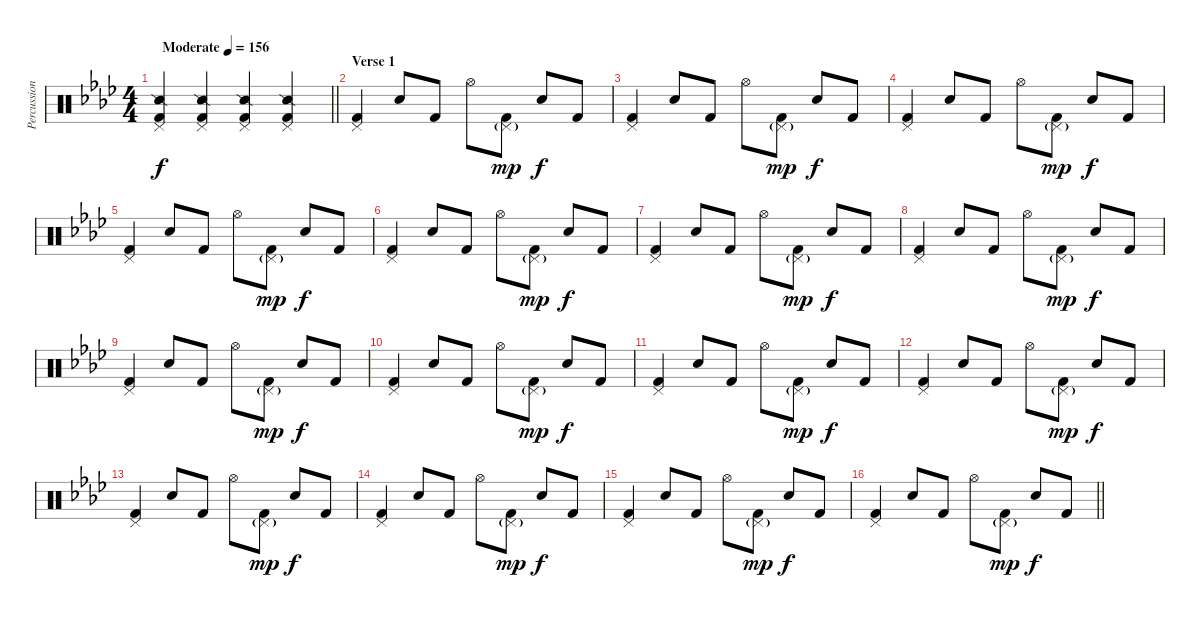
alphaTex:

\track ("Percussion" "Percussion") {instrument percussion}
\staff {score}
\articulation defaults
\ts (4 4)
\tempo (156 "Moderate")
\clef neutral
\barLineRight lightlight
\ks fminor
("Snare (side stick) 2" "Pedal Hi-Hat (hit)" "Kick (hit) 2").4{dy f} ("Snare (side stick) 2" "Pedal Hi-Hat (hit)" "Kick (hit) 2").4 ("Snare (side stick) 2" "Pedal Hi-Hat (hit)" "Kick (hit) 2").4 ("Snare (side stick) 2" "Pedal Hi-Hat (hit)" "Kick (hit) 2").4 |
\section ("" "Verse 1")
("Pedal Hi-Hat (hit)" "Kick (hit) 2").4 "Electric Snare (hit)".8 "Kick (hit) 2".8 "Hi-Hat (open)".8 ("Pedal Hi-Hat (hit)"{g} "Kick (hit) 2").8{dy mp} "Electric Snare (hit)".8{dy f} "Kick (hit) 2".8 |
("Pedal Hi-Hat (hit)" "Kick (hit) 2").4 "Electric Snare (hit)".8 "Kick (hit) 2".8 "Hi-Hat (open)".8 ("Pedal Hi-Hat (hit)"{g} "Kick (hit) 2").8{dy mp} "Electric Snare (hit)".8{dy f} "Kick (hit) 2".8 |
("Pedal Hi-Hat (hit)" "Kick (hit) 2").4 "Electric Snare (hit)".8 "Kick (hit) 2".8 "Hi-Hat (open)".8 ("Pedal Hi-Hat (hit)"{g} "Kick (hit) 2").8{dy mp} "Electric Snare (hit)".8{dy f} "Kick (hit) 2".8 |
("Pedal Hi-Hat (hit)" "Kick (hit) 2").4 "Electric Snare (hit)".8 "Kick (hit) 2".8 "Hi-Hat (open)".8 ("Pedal Hi-Hat (hit)"{g} "Kick (hit) 2").8{dy mp} "Electric Snare (hit)".8{dy f} "Kick (hit) 2".8 |
("Pedal Hi-Hat (hit)" "Kick (hit) 2").4 "Electric Snare (hit)".8 "Kick (hit) 2".8 "Hi-Hat (open)".8 ("Pedal Hi-Hat (hit)"{g} "Kick (hit) 2").8{dy mp} "Electric Snare (hit)".8{dy f} "Kick (hit) 2".8 |
("Pedal Hi-Hat (hit)" "Kick (hit) 2").4 "Electric Snare (hit)".8 "Kick (hit) 2".8 "Hi-Hat (open)".8 ("Pedal Hi-Hat (hit)"{g} "Kick (hit) 2").8{dy mp} "Electric Snare (hit)".8{dy f} "Kick (hit) 2".8 |
("Pedal Hi-Hat (hit)" "Kick (hit) 2").4 "Electric Snare (hit)".8 "Kick (hit) 2".8 "Hi-Hat (open)".8 ("Pedal Hi-Hat (hit)"{g} "Kick (hit) 2").8{dy mp} "Electric Snare (hit)".8{dy f} "Kick (hit) 2".8 |
("Pedal Hi-Hat (hit)" "Kick (hit) 2").4 "Electric Snare (hit)".8 "Kick (hit) 2".8 "Hi-Hat (open)".8 ("Pedal Hi-Hat (hit)"{g} "Kick (hit) 2").8{dy mp} "Electric Snare (hit)".8{dy f} "Kick (hit) 2".8 |
("Pedal Hi-Hat (hit)" "Kick (hit) 2").4 "Electric Snare (hit)".8 "Kick (hit) 2".8 "Hi-Hat (open)".8 ("Pedal Hi-Hat (hit)"{g} "Kick (hit) 2").8{dy mp} "Electric Snare (hit)".8{dy f} "Kick (hit) 2".8 |
("Pedal Hi-Hat (hit)" "Kick (hit) 2").4 "Electric Snare (hit)".8 "Kick (hit) 2".8 "Hi-Hat (open)".8 ("Pedal Hi-Hat (hit)"{g} "Kick (hit) 2").8{dy mp} "Electric Snare (hit)".8{dy f} "Kick (hit) 2".8 |
("Pedal Hi-Hat (hit)" "Kick (hit) 2").4 "Electric Snare (hit)".8 "Kick (hit) 2".8 "Hi-Hat (open)".8 ("Pedal Hi-Hat (hit)"{g} "Kick (hit) 2").8{dy mp} "Electric Snare (hit)".8{dy f} "Kick (hit) 2".8 |
("Pedal Hi-Hat (hit)" "Kick (hit) 2").4 "Electric Snare (hit)".8 "Kick (hit) 2".8 "Hi-Hat (open)".8 ("Pedal Hi-Hat (hit)"{g} "Kick (hit) 2").8{dy mp} "Electric Snare (hit)".8{dy f} "Kick (hit) 2".8 |
("Pedal Hi-Hat (hit)" "Kick (hit) 2").4 "Electric Snare (hit)".8 "Kick (hit) 2".8 "Hi-Hat (open)".8 ("Pedal Hi-Hat (hit)"{g} "Kick (hit) 2").8{dy mp} "Electric Snare (hit)".8{dy f} "Kick (hit) 2".8 |
("Pedal Hi-Hat (hit)" "Kick (hit) 2").4 "Electric Snare (hit)".8 "Kick (hit) 2".8 "Hi-Hat (open)".8 ("Pedal Hi-Hat (hit)"{g} "Kick (hit) 2").8{dy mp} "Electric Snare (hit)".8{dy f} "Kick (hit) 2".8 |
\barLineRight lightlight
("Pedal Hi-Hat (hit)" "Kick (hit) 2").4 "Electric Snare (hit)".8 "Kick (hit) 2".8 "Hi-Hat (open)".8 ("Pedal Hi-Hat (hit)"{g} "Kick (hit) 2").8{dy mp} "Electric Snare (hit)".8{dy f} "Kick (hit) 2".8
